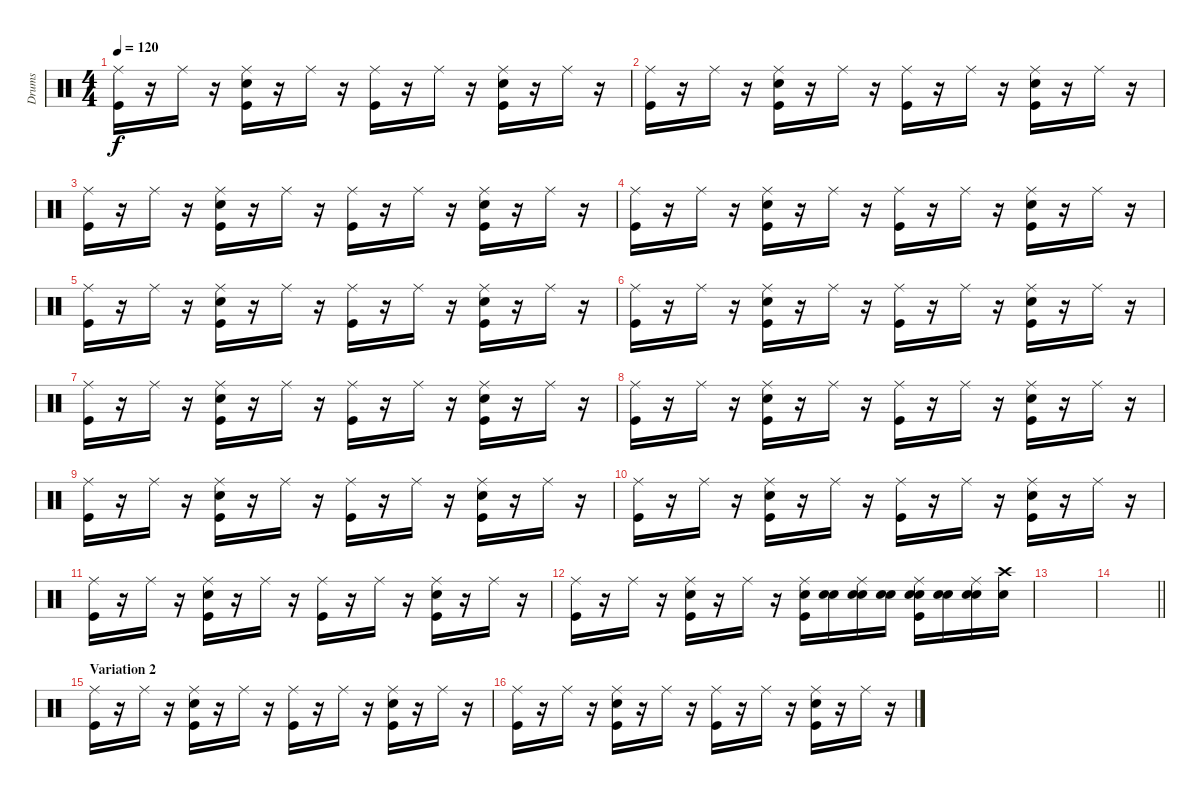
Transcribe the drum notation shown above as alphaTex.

\track ("Drums" "Drums") {instrument percussion}
\staff {score}
\articulation defaults
\ts (4 4)
\tempo 120
\clef neutral
\ks c
("Kick (hit)" "Ride (middle)").16{dy f} r.16 "Ride (middle)".16 r.16 ("Kick (hit)" "Snare (hit) 2" "Ride (middle)").16 r.16 "Ride (middle)".16 r.16 ("Kick (hit)" "Ride (middle)").16 r.16 "Ride (middle)".16 r.16 ("Kick (hit)" "Snare (hit) 2" "Ride (middle)").16 r.16 "Ride (middle)".16 r.16 |
("Kick (hit)" "Ride (middle)").16 r.16 "Ride (middle)".16 r.16 ("Kick (hit)" "Snare (hit) 2" "Ride (middle)").16 r.16 "Ride (middle)".16 r.16 ("Kick (hit)" "Ride (middle)").16 r.16 "Ride (middle)".16 r.16 ("Kick (hit)" "Snare (hit) 2" "Ride (middle)").16 r.16 "Ride (middle)".16 r.16 |
("Kick (hit)" "Ride (middle)").16 r.16 "Ride (middle)".16 r.16 ("Kick (hit)" "Snare (hit) 2" "Ride (middle)").16 r.16 "Ride (middle)".16 r.16 ("Kick (hit)" "Ride (middle)").16 r.16 "Ride (middle)".16 r.16 ("Kick (hit)" "Snare (hit) 2" "Ride (middle)").16 r.16 "Ride (middle)".16 r.16 |
("Kick (hit)" "Ride (middle)").16 r.16 "Ride (middle)".16 r.16 ("Kick (hit)" "Snare (hit) 2" "Ride (middle)").16 r.16 "Ride (middle)".16 r.16 ("Kick (hit)" "Ride (middle)").16 r.16 "Ride (middle)".16 r.16 ("Kick (hit)" "Snare (hit) 2" "Ride (middle)").16 r.16 "Ride (middle)".16 r.16 |
("Kick (hit)" "Ride (middle)").16 r.16 "Ride (middle)".16 r.16 ("Kick (hit)" "Snare (hit) 2" "Ride (middle)").16 r.16 "Ride (middle)".16 r.16 ("Kick (hit)" "Ride (middle)").16 r.16 "Ride (middle)".16 r.16 ("Kick (hit)" "Snare (hit) 2" "Ride (middle)").16 r.16 "Ride (middle)".16 r.16 |
("Kick (hit)" "Ride (middle)").16 r.16 "Ride (middle)".16 r.16 ("Kick (hit)" "Snare (hit) 2" "Ride (middle)").16 r.16 "Ride (middle)".16 r.16 ("Kick (hit)" "Ride (middle)").16 r.16 "Ride (middle)".16 r.16 ("Kick (hit)" "Snare (hit) 2" "Ride (middle)").16 r.16 "Ride (middle)".16 r.16 |
("Kick (hit)" "Ride (middle)").16 r.16 "Ride (middle)".16 r.16 ("Kick (hit)" "Snare (hit) 2" "Ride (middle)").16 r.16 "Ride (middle)".16 r.16 ("Kick (hit)" "Ride (middle)").16 r.16 "Ride (middle)".16 r.16 ("Kick (hit)" "Snare (hit) 2" "Ride (middle)").16 r.16 "Ride (middle)".16 r.16 |
("Kick (hit)" "Ride (middle)").16 r.16 "Ride (middle)".16 r.16 ("Kick (hit)" "Snare (hit) 2" "Ride (middle)").16 r.16 "Ride (middle)".16 r.16 ("Kick (hit)" "Ride (middle)").16 r.16 "Ride (middle)".16 r.16 ("Kick (hit)" "Snare (hit) 2" "Ride (middle)").16 r.16 "Ride (middle)".16 r.16 |
("Kick (hit)" "Ride (middle)").16 r.16 "Ride (middle)".16 r.16 ("Kick (hit)" "Snare (hit) 2" "Ride (middle)").16 r.16 "Ride (middle)".16 r.16 ("Kick (hit)" "Ride (middle)").16 r.16 "Ride (middle)".16 r.16 ("Kick (hit)" "Snare (hit) 2" "Ride (middle)").16 r.16 "Ride (middle)".16 r.16 |
("Kick (hit)" "Ride (middle)").16 r.16 "Ride (middle)".16 r.16 ("Kick (hit)" "Snare (hit) 2" "Ride (middle)").16 r.16 "Ride (middle)".16 r.16 ("Kick (hit)" "Ride (middle)").16 r.16 "Ride (middle)".16 r.16 ("Kick (hit)" "Snare (hit) 2" "Ride (middle)").16 r.16 "Ride (middle)".16 r.16 |
("Kick (hit)" "Ride (middle)").16 r.16 "Ride (middle)".16 r.16 ("Kick (hit)" "Snare (hit) 2" "Ride (middle)").16 r.16 "Ride (middle)".16 r.16 ("Kick (hit)" "Ride (middle)").16 r.16 "Ride (middle)".16 r.16 ("Kick (hit)" "Snare (hit) 2" "Ride (middle)").16 r.16 "Ride (middle)".16 r.16 |
("Kick (hit)" "Ride (middle)").16 r.16 "Ride (middle)".16 r.16 ("Snare (hit) 2" "Kick (hit)" "Ride (middle)").16 r.16 "Ride (middle)".16 r.16 ("Snare (hit) 2" "Kick (hit)" "Ride (middle)").16 ("Snare (hit)" "Snare (hit) 2").16 ("Snare (hit)" "Snare (hit) 2" "Ride (middle)").16 ("Snare (hit)" "Snare (hit) 2").16 ("Snare (hit)" "Snare (hit) 2" "Kick (hit)" "Ride (middle)").16 ("Snare (hit)" "Snare (hit) 2").16 ("Snare (hit)" "Snare (hit) 2" "Ride (middle)").16 ("Snare (hit)" "Crash high (hit)").16 |
|
\barLineRight lightlight
|
\section ("" "Variation 2")
("Kick (hit)" "Ride (middle)").16 r.16 "Ride (middle)".16 r.16 ("Kick (hit)" "Snare (hit) 2" "Ride (middle)").16 r.16 "Ride (middle)".16 r.16 ("Kick (hit)" "Ride (middle)").16 r.16 "Ride (middle)".16 r.16 ("Kick (hit)" "Snare (hit) 2" "Ride (middle)").16 r.16 "Ride (middle)".16 r.16 |
("Kick (hit)" "Ride (middle)").16 r.16 "Ride (middle)".16 r.16 ("Kick (hit)" "Snare (hit) 2" "Ride (middle)").16 r.16 "Ride (middle)".16 r.16 ("Kick (hit)" "Ride (middle)").16 r.16 "Ride (middle)".16 r.16 ("Kick (hit)" "Snare (hit) 2" "Ride (middle)").16 r.16 "Ride (middle)".16 r.16
